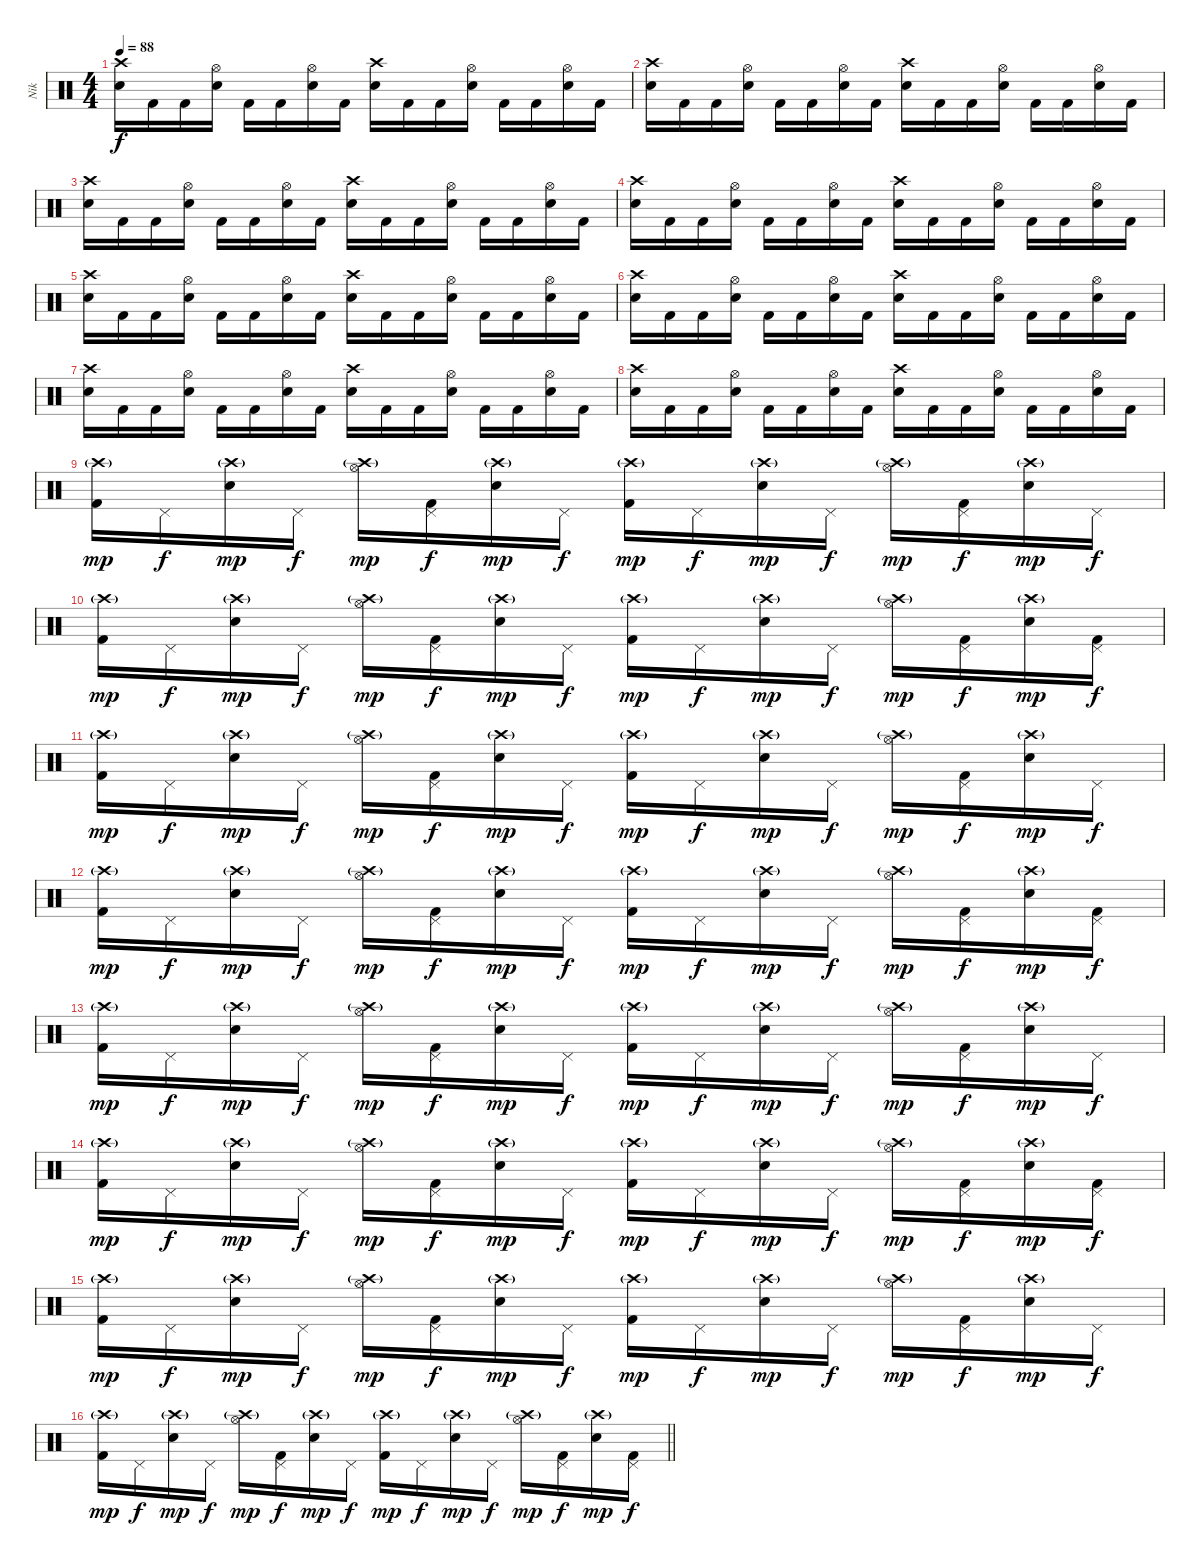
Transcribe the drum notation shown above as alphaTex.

\track ("Nik" "Nik") {solo instrument percussion}
\staff {score}
\articulation defaults
\ts (4 4)
\tempo 88
\clef neutral
\ks c
("Crash high (hit)" "Snare (hit) 2").16{dy f} "Kick (hit) 2".16 "Kick (hit) 2".16 ("Hi-Hat (open)" "Snare (hit) 2").16 "Kick (hit) 2".16 "Kick (hit) 2".16 ("Hi-Hat (open)" "Snare (hit) 2").16 "Kick (hit) 2".16 ("Crash high (hit)" "Snare (hit) 2").16 "Kick (hit) 2".16 "Kick (hit) 2".16 ("Hi-Hat (open)" "Snare (hit) 2").16 "Kick (hit) 2".16 "Kick (hit) 2".16 ("Hi-Hat (open)" "Snare (hit) 2").16 "Kick (hit) 2".16 |
("Crash high (hit)" "Snare (hit) 2").16 "Kick (hit) 2".16 "Kick (hit) 2".16 ("Hi-Hat (open)" "Snare (hit) 2").16 "Kick (hit) 2".16 "Kick (hit) 2".16 ("Hi-Hat (open)" "Snare (hit) 2").16 "Kick (hit) 2".16 ("Crash high (hit)" "Snare (hit) 2").16 "Kick (hit) 2".16 "Kick (hit) 2".16 ("Hi-Hat (open)" "Snare (hit) 2").16 "Kick (hit) 2".16 "Kick (hit) 2".16 ("Hi-Hat (open)" "Snare (hit) 2").16 "Kick (hit) 2".16 |
("Crash high (hit)" "Snare (hit) 2").16 "Kick (hit) 2".16 "Kick (hit) 2".16 ("Hi-Hat (open)" "Snare (hit) 2").16 "Kick (hit) 2".16 "Kick (hit) 2".16 ("Hi-Hat (open)" "Snare (hit) 2").16 "Kick (hit) 2".16 ("Crash high (hit)" "Snare (hit) 2").16 "Kick (hit) 2".16 "Kick (hit) 2".16 ("Hi-Hat (open)" "Snare (hit) 2").16 "Kick (hit) 2".16 "Kick (hit) 2".16 ("Hi-Hat (open)" "Snare (hit) 2").16 "Kick (hit) 2".16 |
("Crash high (hit)" "Snare (hit) 2").16 "Kick (hit) 2".16 "Kick (hit) 2".16 ("Hi-Hat (open)" "Snare (hit) 2").16 "Kick (hit) 2".16 "Kick (hit) 2".16 ("Hi-Hat (open)" "Snare (hit) 2").16 "Kick (hit) 2".16 ("Crash high (hit)" "Snare (hit) 2").16 "Kick (hit) 2".16 "Kick (hit) 2".16 ("Hi-Hat (open)" "Snare (hit) 2").16 "Kick (hit) 2".16 "Kick (hit) 2".16 ("Hi-Hat (open)" "Snare (hit) 2").16 "Kick (hit) 2".16 |
("Crash high (hit)" "Snare (hit) 2").16 "Kick (hit) 2".16 "Kick (hit) 2".16 ("Hi-Hat (open)" "Snare (hit) 2").16 "Kick (hit) 2".16 "Kick (hit) 2".16 ("Hi-Hat (open)" "Snare (hit) 2").16 "Kick (hit) 2".16 ("Crash high (hit)" "Snare (hit) 2").16 "Kick (hit) 2".16 "Kick (hit) 2".16 ("Hi-Hat (open)" "Snare (hit) 2").16 "Kick (hit) 2".16 "Kick (hit) 2".16 ("Hi-Hat (open)" "Snare (hit) 2").16 "Kick (hit) 2".16 |
("Crash high (hit)" "Snare (hit) 2").16 "Kick (hit) 2".16 "Kick (hit) 2".16 ("Hi-Hat (open)" "Snare (hit) 2").16 "Kick (hit) 2".16 "Kick (hit) 2".16 ("Hi-Hat (open)" "Snare (hit) 2").16 "Kick (hit) 2".16 ("Crash high (hit)" "Snare (hit) 2").16 "Kick (hit) 2".16 "Kick (hit) 2".16 ("Hi-Hat (open)" "Snare (hit) 2").16 "Kick (hit) 2".16 "Kick (hit) 2".16 ("Hi-Hat (open)" "Snare (hit) 2").16 "Kick (hit) 2".16 |
("Crash high (hit)" "Snare (hit) 2").16 "Kick (hit) 2".16 "Kick (hit) 2".16 ("Hi-Hat (open)" "Snare (hit) 2").16 "Kick (hit) 2".16 "Kick (hit) 2".16 ("Hi-Hat (open)" "Snare (hit) 2").16 "Kick (hit) 2".16 ("Crash high (hit)" "Snare (hit) 2").16 "Kick (hit) 2".16 "Kick (hit) 2".16 ("Hi-Hat (open)" "Snare (hit) 2").16 "Kick (hit) 2".16 "Kick (hit) 2".16 ("Hi-Hat (open)" "Snare (hit) 2").16 "Kick (hit) 2".16 |
("Crash high (hit)" "Snare (hit) 2").16 "Kick (hit) 2".16 "Kick (hit) 2".16 ("Hi-Hat (open)" "Snare (hit) 2").16 "Kick (hit) 2".16 "Kick (hit) 2".16 ("Hi-Hat (open)" "Snare (hit) 2").16 "Kick (hit) 2".16 ("Crash high (hit)" "Snare (hit) 2").16 "Kick (hit) 2".16 "Kick (hit) 2".16 ("Hi-Hat (open)" "Snare (hit) 2").16 "Kick (hit) 2".16 "Kick (hit) 2".16 ("Hi-Hat (open)" "Snare (hit) 2").16 "Kick (hit) 2".16 |
("Crash high (hit)"{g} "Kick (hit) 2").16{dy mp} "Pedal Hi-Hat (hit)".16{dy f} ("Crash high (hit)"{g} "Snare (hit) 2").16{dy mp} "Pedal Hi-Hat (hit)".16{dy f} ("Crash high (hit)"{g} "Hi-Hat (open)").16{dy mp} ("Pedal Hi-Hat (hit)" "Kick (hit) 2").16{dy f} ("Crash high (hit)"{g} "Snare (hit) 2").16{dy mp} "Pedal Hi-Hat (hit)".16{dy f} ("Crash high (hit)"{g} "Kick (hit) 2").16{dy mp} "Pedal Hi-Hat (hit)".16{dy f} ("Crash high (hit)"{g} "Snare (hit) 2").16{dy mp} "Pedal Hi-Hat (hit)".16{dy f} ("Crash high (hit)"{g} "Hi-Hat (open)").16{dy mp} ("Pedal Hi-Hat (hit)" "Kick (hit) 2").16{dy f} ("Crash high (hit)"{g} "Snare (hit) 2").16{dy mp} "Pedal Hi-Hat (hit)".16{dy f} |
("Crash high (hit)"{g} "Kick (hit) 2").16{dy mp} "Pedal Hi-Hat (hit)".16{dy f} ("Crash high (hit)"{g} "Snare (hit) 2").16{dy mp} "Pedal Hi-Hat (hit)".16{dy f} ("Crash high (hit)"{g} "Hi-Hat (open)").16{dy mp} ("Pedal Hi-Hat (hit)" "Kick (hit) 2").16{dy f} ("Crash high (hit)"{g} "Snare (hit) 2").16{dy mp} "Pedal Hi-Hat (hit)".16{dy f} ("Crash high (hit)"{g} "Kick (hit) 2").16{dy mp} "Pedal Hi-Hat (hit)".16{dy f} ("Crash high (hit)"{g} "Snare (hit) 2").16{dy mp} "Pedal Hi-Hat (hit)".16{dy f} ("Crash high (hit)"{g} "Hi-Hat (open)").16{dy mp} ("Pedal Hi-Hat (hit)" "Kick (hit) 2").16{dy f} ("Crash high (hit)"{g} "Snare (hit) 2").16{dy mp} ("Pedal Hi-Hat (hit)" "Kick (hit) 2").16{dy f} |
("Crash high (hit)"{g} "Kick (hit) 2").16{dy mp} "Pedal Hi-Hat (hit)".16{dy f} ("Crash high (hit)"{g} "Snare (hit) 2").16{dy mp} "Pedal Hi-Hat (hit)".16{dy f} ("Crash high (hit)"{g} "Hi-Hat (open)").16{dy mp} ("Pedal Hi-Hat (hit)" "Kick (hit) 2").16{dy f} ("Crash high (hit)"{g} "Snare (hit) 2").16{dy mp} "Pedal Hi-Hat (hit)".16{dy f} ("Crash high (hit)"{g} "Kick (hit) 2").16{dy mp} "Pedal Hi-Hat (hit)".16{dy f} ("Crash high (hit)"{g} "Snare (hit) 2").16{dy mp} "Pedal Hi-Hat (hit)".16{dy f} ("Crash high (hit)"{g} "Hi-Hat (open)").16{dy mp} ("Pedal Hi-Hat (hit)" "Kick (hit) 2").16{dy f} ("Crash high (hit)"{g} "Snare (hit) 2").16{dy mp} "Pedal Hi-Hat (hit)".16{dy f} |
("Crash high (hit)"{g} "Kick (hit) 2").16{dy mp} "Pedal Hi-Hat (hit)".16{dy f} ("Crash high (hit)"{g} "Snare (hit) 2").16{dy mp} "Pedal Hi-Hat (hit)".16{dy f} ("Crash high (hit)"{g} "Hi-Hat (open)").16{dy mp} ("Pedal Hi-Hat (hit)" "Kick (hit) 2").16{dy f} ("Crash high (hit)"{g} "Snare (hit) 2").16{dy mp} "Pedal Hi-Hat (hit)".16{dy f} ("Crash high (hit)"{g} "Kick (hit) 2").16{dy mp} "Pedal Hi-Hat (hit)".16{dy f} ("Crash high (hit)"{g} "Snare (hit) 2").16{dy mp} "Pedal Hi-Hat (hit)".16{dy f} ("Crash high (hit)"{g} "Hi-Hat (open)").16{dy mp} ("Pedal Hi-Hat (hit)" "Kick (hit) 2").16{dy f} ("Crash high (hit)"{g} "Snare (hit) 2").16{dy mp} ("Pedal Hi-Hat (hit)" "Kick (hit) 2").16{dy f} |
("Crash high (hit)"{g} "Kick (hit) 2").16{dy mp} "Pedal Hi-Hat (hit)".16{dy f} ("Crash high (hit)"{g} "Snare (hit) 2").16{dy mp} "Pedal Hi-Hat (hit)".16{dy f} ("Crash high (hit)"{g} "Hi-Hat (open)").16{dy mp} ("Pedal Hi-Hat (hit)" "Kick (hit) 2").16{dy f} ("Crash high (hit)"{g} "Snare (hit) 2").16{dy mp} "Pedal Hi-Hat (hit)".16{dy f} ("Crash high (hit)"{g} "Kick (hit) 2").16{dy mp} "Pedal Hi-Hat (hit)".16{dy f} ("Crash high (hit)"{g} "Snare (hit) 2").16{dy mp} "Pedal Hi-Hat (hit)".16{dy f} ("Crash high (hit)"{g} "Hi-Hat (open)").16{dy mp} ("Pedal Hi-Hat (hit)" "Kick (hit) 2").16{dy f} ("Crash high (hit)"{g} "Snare (hit) 2").16{dy mp} "Pedal Hi-Hat (hit)".16{dy f} |
("Crash high (hit)"{g} "Kick (hit) 2").16{dy mp} "Pedal Hi-Hat (hit)".16{dy f} ("Crash high (hit)"{g} "Snare (hit) 2").16{dy mp} "Pedal Hi-Hat (hit)".16{dy f} ("Crash high (hit)"{g} "Hi-Hat (open)").16{dy mp} ("Pedal Hi-Hat (hit)" "Kick (hit) 2").16{dy f} ("Crash high (hit)"{g} "Snare (hit) 2").16{dy mp} "Pedal Hi-Hat (hit)".16{dy f} ("Crash high (hit)"{g} "Kick (hit) 2").16{dy mp} "Pedal Hi-Hat (hit)".16{dy f} ("Crash high (hit)"{g} "Snare (hit) 2").16{dy mp} "Pedal Hi-Hat (hit)".16{dy f} ("Crash high (hit)"{g} "Hi-Hat (open)").16{dy mp} ("Pedal Hi-Hat (hit)" "Kick (hit) 2").16{dy f} ("Crash high (hit)"{g} "Snare (hit) 2").16{dy mp} ("Pedal Hi-Hat (hit)" "Kick (hit) 2").16{dy f} |
("Crash high (hit)"{g} "Kick (hit) 2").16{dy mp} "Pedal Hi-Hat (hit)".16{dy f} ("Crash high (hit)"{g} "Snare (hit) 2").16{dy mp} "Pedal Hi-Hat (hit)".16{dy f} ("Crash high (hit)"{g} "Hi-Hat (open)").16{dy mp} ("Pedal Hi-Hat (hit)" "Kick (hit) 2").16{dy f} ("Crash high (hit)"{g} "Snare (hit) 2").16{dy mp} "Pedal Hi-Hat (hit)".16{dy f} ("Crash high (hit)"{g} "Kick (hit) 2").16{dy mp} "Pedal Hi-Hat (hit)".16{dy f} ("Crash high (hit)"{g} "Snare (hit) 2").16{dy mp} "Pedal Hi-Hat (hit)".16{dy f} ("Crash high (hit)"{g} "Hi-Hat (open)").16{dy mp} ("Pedal Hi-Hat (hit)" "Kick (hit) 2").16{dy f} ("Crash high (hit)"{g} "Snare (hit) 2").16{dy mp} "Pedal Hi-Hat (hit)".16{dy f} |
\barLineRight lightlight
("Crash high (hit)"{g} "Kick (hit) 2").16{dy mp} "Pedal Hi-Hat (hit)".16{dy f} ("Crash high (hit)"{g} "Snare (hit) 2").16{dy mp} "Pedal Hi-Hat (hit)".16{dy f} ("Crash high (hit)"{g} "Hi-Hat (open)").16{dy mp} ("Pedal Hi-Hat (hit)" "Kick (hit) 2").16{dy f} ("Crash high (hit)"{g} "Snare (hit) 2").16{dy mp} "Pedal Hi-Hat (hit)".16{dy f} ("Crash high (hit)"{g} "Kick (hit) 2").16{dy mp} "Pedal Hi-Hat (hit)".16{dy f} ("Crash high (hit)"{g} "Snare (hit) 2").16{dy mp} "Pedal Hi-Hat (hit)".16{dy f} ("Crash high (hit)"{g} "Hi-Hat (open)").16{dy mp} ("Pedal Hi-Hat (hit)" "Kick (hit) 2").16{dy f} ("Crash high (hit)"{g} "Snare (hit) 2").16{dy mp} ("Pedal Hi-Hat (hit)" "Kick (hit) 2").16{dy f}
